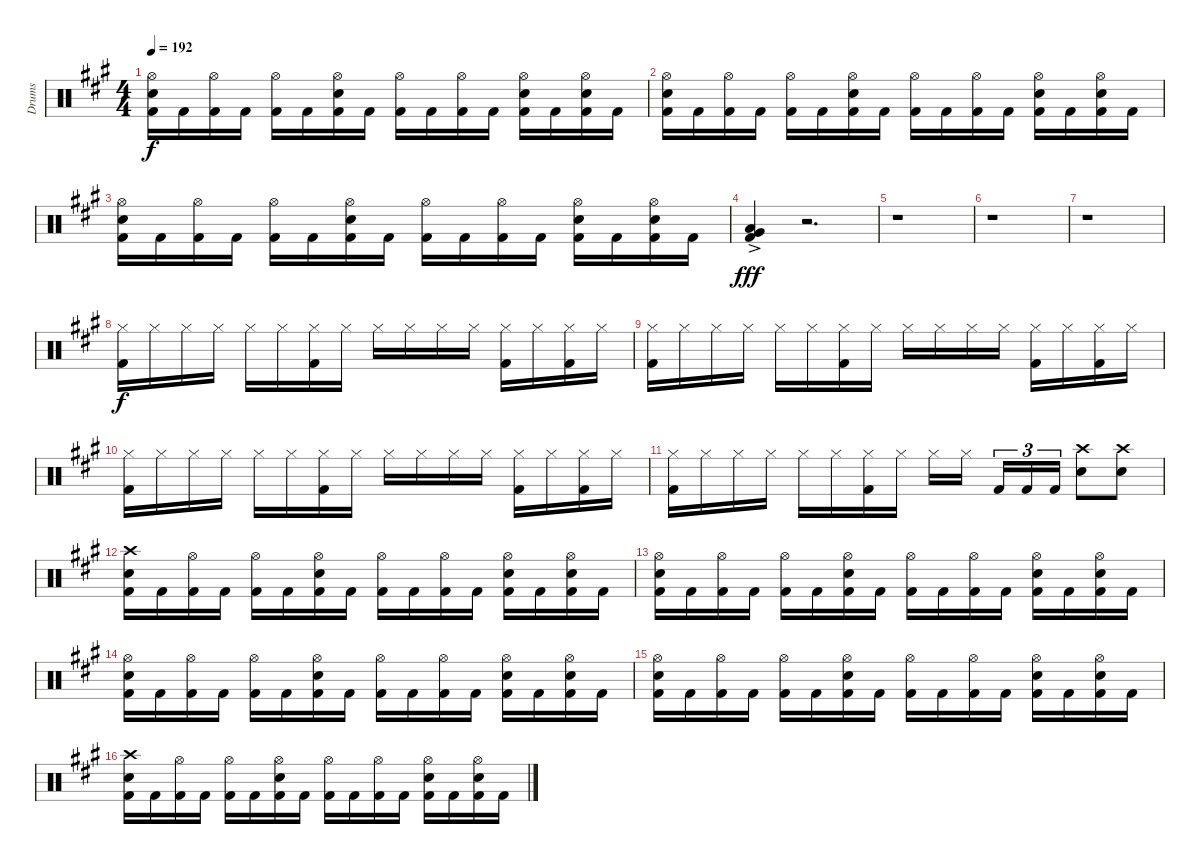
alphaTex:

\track ("Drums" "Drums") {instrument percussion}
\staff {score}
\articulation defaults
\ts (4 4)
\tempo 192
\clef neutral
\ks f#minor
("Hi-Hat (open)" "Snare (hit) 2" "Kick (hit) 2").16{dy f} "Kick (hit) 2".16 ("Hi-Hat (open)" "Kick (hit) 2").16 "Kick (hit) 2".16 ("Hi-Hat (open)" "Kick (hit) 2").16 "Kick (hit) 2".16 ("Hi-Hat (open)" "Snare (hit) 2" "Kick (hit) 2").16 "Kick (hit) 2".16 ("Hi-Hat (open)" "Kick (hit) 2").16 "Kick (hit) 2".16 ("Hi-Hat (open)" "Kick (hit) 2").16 "Kick (hit) 2".16 ("Hi-Hat (open)" "Snare (hit) 2" "Kick (hit) 2").16 "Kick (hit) 2".16 ("Hi-Hat (open)" "Snare (hit) 2" "Kick (hit) 2").16 "Kick (hit) 2".16 |
("Hi-Hat (open)" "Snare (hit) 2" "Kick (hit) 2").16 "Kick (hit) 2".16 ("Hi-Hat (open)" "Kick (hit) 2").16 "Kick (hit) 2".16 ("Hi-Hat (open)" "Kick (hit) 2").16 "Kick (hit) 2".16 ("Hi-Hat (open)" "Snare (hit) 2" "Kick (hit) 2").16 "Kick (hit) 2".16 ("Hi-Hat (open)" "Kick (hit) 2").16 "Kick (hit) 2".16 ("Hi-Hat (open)" "Kick (hit) 2").16 "Kick (hit) 2".16 ("Hi-Hat (open)" "Snare (hit) 2" "Kick (hit) 2").16 "Kick (hit) 2".16 ("Hi-Hat (open)" "Snare (hit) 2" "Kick (hit) 2").16 "Kick (hit) 2".16 |
("Hi-Hat (open)" "Snare (hit) 2" "Kick (hit) 2").16 "Kick (hit) 2".16 ("Hi-Hat (open)" "Kick (hit) 2").16 "Kick (hit) 2".16 ("Hi-Hat (open)" "Kick (hit) 2").16 "Kick (hit) 2".16 ("Hi-Hat (open)" "Snare (hit) 2" "Kick (hit) 2").16 "Kick (hit) 2".16 ("Hi-Hat (open)" "Kick (hit) 2").16 "Kick (hit) 2".16 ("Hi-Hat (open)" "Kick (hit) 2").16 "Kick (hit) 2".16 ("Hi-Hat (open)" "Snare (hit) 2" "Kick (hit) 2").16 "Kick (hit) 2".16 ("Hi-Hat (open)" "Snare (hit) 2" "Kick (hit) 2").16 "Kick (hit) 2".16 |
("Low Tom (hit)"{ac} "Very Low Tom (hit)"{ac} "Kick (hit) 2"{ac}).4{dy fff} r.2{d} |
r.1 |
r.1 |
r.1 |
("Hi-Hat (closed)" "Kick (hit) 2").16{dy f} "Hi-Hat (closed)".16 "Hi-Hat (closed)".16 "Hi-Hat (closed)".16 "Hi-Hat (closed)".16 "Hi-Hat (closed)".16 ("Hi-Hat (closed)" "Kick (hit) 2").16 "Hi-Hat (closed)".16 "Hi-Hat (closed)".16 "Hi-Hat (closed)".16 "Hi-Hat (closed)".16 "Hi-Hat (closed)".16 ("Hi-Hat (closed)" "Kick (hit) 2").16 "Hi-Hat (closed)".16 ("Hi-Hat (closed)" "Kick (hit) 2").16 "Hi-Hat (closed)".16 |
("Hi-Hat (closed)" "Kick (hit) 2").16 "Hi-Hat (closed)".16 "Hi-Hat (closed)".16 "Hi-Hat (closed)".16 "Hi-Hat (closed)".16 "Hi-Hat (closed)".16 ("Hi-Hat (closed)" "Kick (hit) 2").16 "Hi-Hat (closed)".16 "Hi-Hat (closed)".16 "Hi-Hat (closed)".16 "Hi-Hat (closed)".16 "Hi-Hat (closed)".16 ("Hi-Hat (closed)" "Kick (hit) 2").16 "Hi-Hat (closed)".16 ("Hi-Hat (closed)" "Kick (hit) 2").16 "Hi-Hat (closed)".16 |
("Hi-Hat (closed)" "Kick (hit) 2").16 "Hi-Hat (closed)".16 "Hi-Hat (closed)".16 "Hi-Hat (closed)".16 "Hi-Hat (closed)".16 "Hi-Hat (closed)".16 ("Hi-Hat (closed)" "Kick (hit) 2").16 "Hi-Hat (closed)".16 "Hi-Hat (closed)".16 "Hi-Hat (closed)".16 "Hi-Hat (closed)".16 "Hi-Hat (closed)".16 ("Hi-Hat (closed)" "Kick (hit) 2").16 "Hi-Hat (closed)".16 ("Hi-Hat (closed)" "Kick (hit) 2").16 "Hi-Hat (closed)".16 |
("Hi-Hat (closed)" "Kick (hit) 2").16 "Hi-Hat (closed)".16 "Hi-Hat (closed)".16 "Hi-Hat (closed)".16 "Hi-Hat (closed)".16 "Hi-Hat (closed)".16 ("Hi-Hat (closed)" "Kick (hit) 2").16 "Hi-Hat (closed)".16 "Hi-Hat (closed)".16 "Hi-Hat (closed)".16 "Kick (hit) 2".16{tu (3 2)} "Kick (hit) 2".16{tu (3 2)} "Kick (hit) 2".16{tu (3 2)} ("Crash high (hit)" "Snare (hit) 2").8 ("Crash high (hit)" "Snare (hit) 2").8 |
("Crash high (hit)" "Snare (hit) 2" "Kick (hit) 2").16 "Kick (hit) 2".16 ("Hi-Hat (open)" "Kick (hit) 2").16 "Kick (hit) 2".16 ("Hi-Hat (open)" "Kick (hit) 2").16 "Kick (hit) 2".16 ("Hi-Hat (open)" "Snare (hit) 2" "Kick (hit) 2").16 "Kick (hit) 2".16 ("Hi-Hat (open)" "Kick (hit) 2").16 "Kick (hit) 2".16 ("Hi-Hat (open)" "Kick (hit) 2").16 "Kick (hit) 2".16 ("Hi-Hat (open)" "Snare (hit) 2" "Kick (hit) 2").16 "Kick (hit) 2".16 ("Hi-Hat (open)" "Snare (hit) 2" "Kick (hit) 2").16 "Kick (hit) 2".16 |
("Hi-Hat (open)" "Snare (hit) 2" "Kick (hit) 2").16 "Kick (hit) 2".16 ("Hi-Hat (open)" "Kick (hit) 2").16 "Kick (hit) 2".16 ("Hi-Hat (open)" "Kick (hit) 2").16 "Kick (hit) 2".16 ("Hi-Hat (open)" "Snare (hit) 2" "Kick (hit) 2").16 "Kick (hit) 2".16 ("Hi-Hat (open)" "Kick (hit) 2").16 "Kick (hit) 2".16 ("Hi-Hat (open)" "Kick (hit) 2").16 "Kick (hit) 2".16 ("Hi-Hat (open)" "Snare (hit) 2" "Kick (hit) 2").16 "Kick (hit) 2".16 ("Hi-Hat (open)" "Snare (hit) 2" "Kick (hit) 2").16 "Kick (hit) 2".16 |
("Hi-Hat (open)" "Snare (hit) 2" "Kick (hit) 2").16 "Kick (hit) 2".16 ("Hi-Hat (open)" "Kick (hit) 2").16 "Kick (hit) 2".16 ("Hi-Hat (open)" "Kick (hit) 2").16 "Kick (hit) 2".16 ("Hi-Hat (open)" "Snare (hit) 2" "Kick (hit) 2").16 "Kick (hit) 2".16 ("Hi-Hat (open)" "Kick (hit) 2").16 "Kick (hit) 2".16 ("Hi-Hat (open)" "Kick (hit) 2").16 "Kick (hit) 2".16 ("Hi-Hat (open)" "Snare (hit) 2" "Kick (hit) 2").16 "Kick (hit) 2".16 ("Hi-Hat (open)" "Snare (hit) 2" "Kick (hit) 2").16 "Kick (hit) 2".16 |
("Hi-Hat (open)" "Snare (hit) 2" "Kick (hit) 2").16 "Kick (hit) 2".16 ("Hi-Hat (open)" "Kick (hit) 2").16 "Kick (hit) 2".16 ("Hi-Hat (open)" "Kick (hit) 2").16 "Kick (hit) 2".16 ("Hi-Hat (open)" "Snare (hit) 2" "Kick (hit) 2").16 "Kick (hit) 2".16 ("Hi-Hat (open)" "Kick (hit) 2").16 "Kick (hit) 2".16 ("Hi-Hat (open)" "Kick (hit) 2").16 "Kick (hit) 2".16 ("Hi-Hat (open)" "Snare (hit) 2" "Kick (hit) 2").16 "Kick (hit) 2".16 ("Hi-Hat (open)" "Snare (hit) 2" "Kick (hit) 2").16 "Kick (hit) 2".16 |
("Crash high (hit)" "Snare (hit) 2" "Kick (hit) 2").16 "Kick (hit) 2".16 ("Hi-Hat (open)" "Kick (hit) 2").16 "Kick (hit) 2".16 ("Hi-Hat (open)" "Kick (hit) 2").16 "Kick (hit) 2".16 ("Hi-Hat (open)" "Snare (hit) 2" "Kick (hit) 2").16 "Kick (hit) 2".16 ("Hi-Hat (open)" "Kick (hit) 2").16 "Kick (hit) 2".16 ("Hi-Hat (open)" "Kick (hit) 2").16 "Kick (hit) 2".16 ("Hi-Hat (open)" "Snare (hit) 2" "Kick (hit) 2").16 "Kick (hit) 2".16 ("Hi-Hat (open)" "Snare (hit) 2" "Kick (hit) 2").16 "Kick (hit) 2".16
